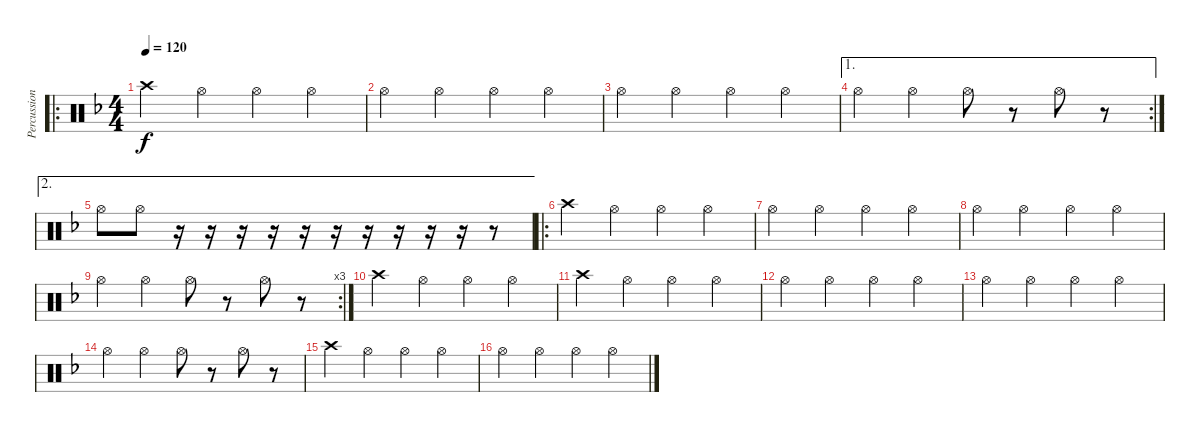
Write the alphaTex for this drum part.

\track ("Percussion" "Percussion") {instrument percussion}
\staff {score}
\articulation defaults
\ro
\ts (4 4)
\tempo 120
\clef neutral
\ks f "Crash high (hit)".4{dy f} "Hi-Hat (open)".4 "Hi-Hat (open)".4 "Hi-Hat (open)".4
|
"Hi-Hat (open)".4 "Hi-Hat (open)".4 "Hi-Hat (open)".4 "Hi-Hat (open)".4 |
"Hi-Hat (open)".4 "Hi-Hat (open)".4 "Hi-Hat (open)".4 "Hi-Hat (open)".4 |
\ae 1
\rc 2 "Hi-Hat (open)".4 "Hi-Hat (open)".4 "Hi-Hat (open)".8
r.8 "Hi-Hat (open)".8 r.8 |
\ae 2 "Hi-Hat (open)".8 "Hi-Hat (open)".8
r.16 r.16 r.16 r.16 r.16 r.16 r.16 r.16 r.16 r.16 r.8 |
\ro "Crash high (hit)".4 "Hi-Hat (open)".4 "Hi-Hat (open)".4 "Hi-Hat (open)".4
|
"Hi-Hat (open)".4 "Hi-Hat (open)".4 "Hi-Hat (open)".4 "Hi-Hat (open)".4 |
"Hi-Hat (open)".4 "Hi-Hat (open)".4 "Hi-Hat (open)".4 "Hi-Hat (open)".4 |
\rc 3 "Hi-Hat (open)".4 "Hi-Hat (open)".4 "Hi-Hat (open)".8
r.8 "Hi-Hat (open)".8 r.8 |
"Crash high (hit)".4 "Hi-Hat (open)".4 "Hi-Hat (open)".4 "Hi-Hat (open)".4 |
"Crash high (hit)".4 "Hi-Hat (open)".4 "Hi-Hat (open)".4 "Hi-Hat (open)".4 |
"Hi-Hat (open)".4 "Hi-Hat (open)".4 "Hi-Hat (open)".4 "Hi-Hat (open)".4 |
"Hi-Hat (open)".4 "Hi-Hat (open)".4 "Hi-Hat (open)".4 "Hi-Hat (open)".4 |
"Hi-Hat (open)".4 "Hi-Hat (open)".4 "Hi-Hat (open)".8 r.8 "Hi-Hat (open)".8 r.8 |
"Crash high (hit)".4 "Hi-Hat (open)".4 "Hi-Hat (open)".4 "Hi-Hat (open)".4 |
"Hi-Hat (open)".4 "Hi-Hat (open)".4 "Hi-Hat (open)".4 "Hi-Hat (open)".4
